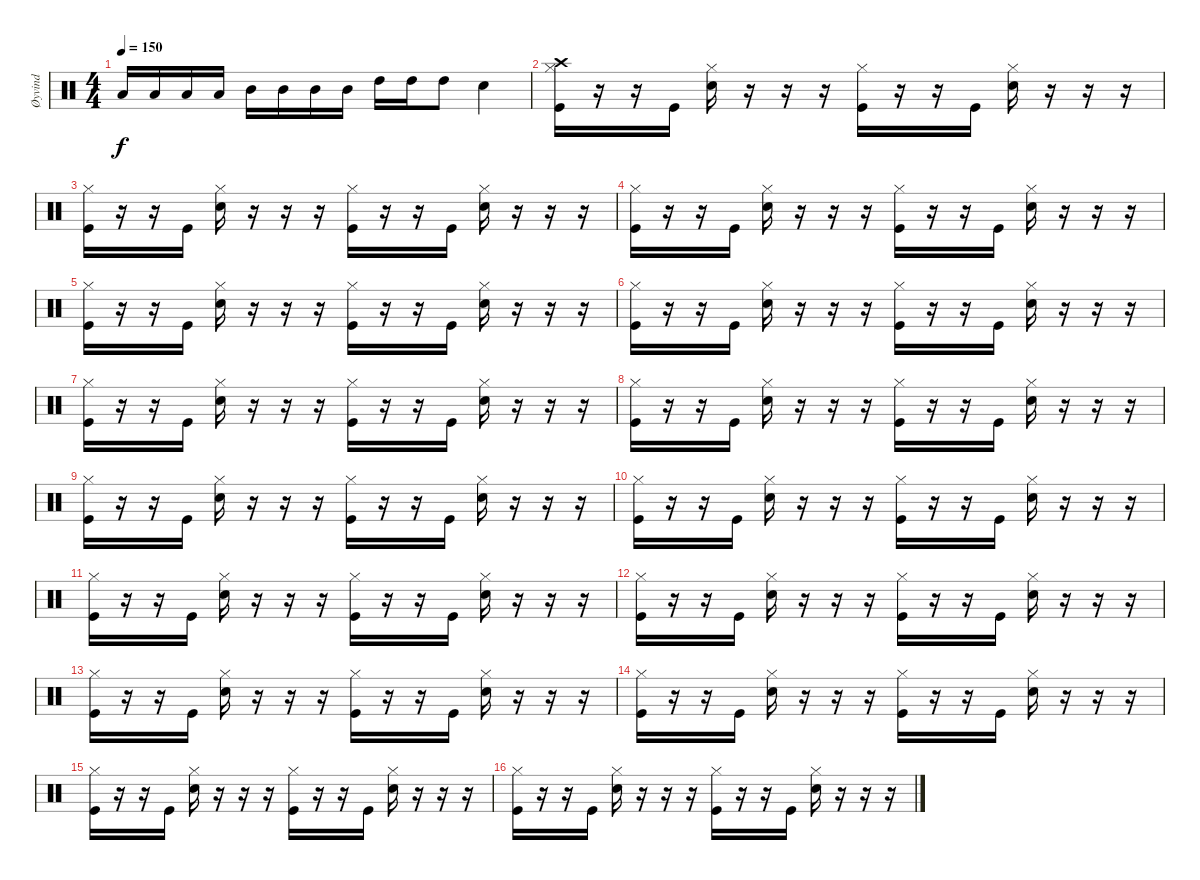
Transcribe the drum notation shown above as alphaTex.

\track ("Øyvind" "Øyvind") {instrument percussion}
\staff {score}
\articulation defaults
\ts (4 4)
\tempo 150
\clef neutral
\ks c "Low Tom (hit)".16{dy f} "Low Tom (hit)".16 "Low Tom (hit)".16 "Low Tom (hit)".16 "Mid Tom (hit)".16 "Mid Tom (hit)".16 "Mid Tom (hit)".16 "Mid Tom (hit)".16 "High Tom (hit)".16 "High Tom (hit)".16 "High Tom (hit)".8 "Snare (hit) 2".4
|
("Crash high (hit)" "Kick (hit)" "Hi-Hat (closed)").16 r.16 r.16 "Kick (hit)".16 ("Electric Snare (hit)" "Hi-Hat (closed)").16 r.16 r.16 r.16 ("Kick (hit)" "Hi-Hat (closed)").16 r.16 r.16 "Kick (hit)".16 ("Electric Snare (hit)" "Hi-Hat (closed)").16 r.16 r.16 r.16 |
("Kick (hit)" "Hi-Hat (closed)").16 r.16 r.16 "Kick (hit)".16 ("Electric Snare (hit)" "Hi-Hat (closed)").16 r.16 r.16 r.16 ("Kick (hit)" "Hi-Hat (closed)").16 r.16 r.16 "Kick (hit)".16 ("Electric Snare (hit)" "Hi-Hat (closed)").16 r.16 r.16 r.16 |
("Kick (hit)" "Hi-Hat (closed)").16 r.16 r.16 "Kick (hit)".16 ("Electric Snare (hit)" "Hi-Hat (closed)").16 r.16 r.16 r.16 ("Kick (hit)" "Hi-Hat (closed)").16 r.16 r.16 "Kick (hit)".16 ("Electric Snare (hit)" "Hi-Hat (closed)").16 r.16 r.16 r.16 |
("Kick (hit)" "Hi-Hat (closed)").16 r.16 r.16 "Kick (hit)".16 ("Electric Snare (hit)" "Hi-Hat (closed)").16 r.16 r.16 r.16 ("Kick (hit)" "Hi-Hat (closed)").16 r.16 r.16 "Kick (hit)".16 ("Electric Snare (hit)" "Hi-Hat (closed)").16 r.16 r.16 r.16 |
("Kick (hit)" "Hi-Hat (closed)").16 r.16 r.16 "Kick (hit)".16 ("Electric Snare (hit)" "Hi-Hat (closed)").16 r.16 r.16 r.16 ("Kick (hit)" "Hi-Hat (closed)").16 r.16 r.16 "Kick (hit)".16 ("Electric Snare (hit)" "Hi-Hat (closed)").16 r.16 r.16 r.16 |
("Kick (hit)" "Hi-Hat (closed)").16 r.16 r.16 "Kick (hit)".16 ("Electric Snare (hit)" "Hi-Hat (closed)").16 r.16 r.16 r.16 ("Kick (hit)" "Hi-Hat (closed)").16 r.16 r.16 "Kick (hit)".16 ("Electric Snare (hit)" "Hi-Hat (closed)").16 r.16 r.16 r.16 |
("Kick (hit)" "Hi-Hat (closed)").16 r.16 r.16 "Kick (hit)".16 ("Electric Snare (hit)" "Hi-Hat (closed)").16 r.16 r.16 r.16 ("Kick (hit)" "Hi-Hat (closed)").16 r.16 r.16 "Kick (hit)".16 ("Electric Snare (hit)" "Hi-Hat (closed)").16 r.16 r.16 r.16 |
("Kick (hit)" "Hi-Hat (closed)").16 r.16 r.16 "Kick (hit)".16 ("Electric Snare (hit)" "Hi-Hat (closed)").16 r.16 r.16 r.16 ("Kick (hit)" "Hi-Hat (closed)").16 r.16 r.16 "Kick (hit)".16 ("Electric Snare (hit)" "Hi-Hat (closed)").16 r.16 r.16 r.16 |
("Kick (hit)" "Hi-Hat (closed)").16 r.16 r.16 "Kick (hit)".16 ("Electric Snare (hit)" "Hi-Hat (closed)").16 r.16 r.16 r.16 ("Kick (hit)" "Hi-Hat (closed)").16 r.16 r.16 "Kick (hit)".16 ("Electric Snare (hit)" "Hi-Hat (closed)").16 r.16 r.16 r.16 |
("Kick (hit)" "Hi-Hat (closed)").16 r.16 r.16 "Kick (hit)".16 ("Electric Snare (hit)" "Hi-Hat (closed)").16 r.16 r.16 r.16 ("Kick (hit)" "Hi-Hat (closed)").16 r.16 r.16 "Kick (hit)".16 ("Electric Snare (hit)" "Hi-Hat (closed)").16 r.16 r.16 r.16 |
("Kick (hit)" "Hi-Hat (closed)").16 r.16 r.16 "Kick (hit)".16 ("Electric Snare (hit)" "Hi-Hat (closed)").16 r.16 r.16 r.16 ("Kick (hit)" "Hi-Hat (closed)").16 r.16 r.16 "Kick (hit)".16 ("Electric Snare (hit)" "Hi-Hat (closed)").16 r.16 r.16 r.16 |
("Kick (hit)" "Hi-Hat (closed)").16 r.16 r.16 "Kick (hit)".16 ("Electric Snare (hit)" "Hi-Hat (closed)").16 r.16 r.16 r.16 ("Kick (hit)" "Hi-Hat (closed)").16 r.16 r.16 "Kick (hit)".16 ("Electric Snare (hit)" "Hi-Hat (closed)").16 r.16 r.16 r.16 |
("Kick (hit)" "Hi-Hat (closed)").16 r.16 r.16 "Kick (hit)".16 ("Electric Snare (hit)" "Hi-Hat (closed)").16 r.16 r.16 r.16 ("Kick (hit)" "Hi-Hat (closed)").16 r.16 r.16 "Kick (hit)".16 ("Electric Snare (hit)" "Hi-Hat (closed)").16 r.16 r.16 r.16 |
("Kick (hit)" "Hi-Hat (closed)").16 r.16 r.16 "Kick (hit)".16 ("Electric Snare (hit)" "Hi-Hat (closed)").16 r.16 r.16 r.16 ("Kick (hit)" "Hi-Hat (closed)").16 r.16 r.16 "Kick (hit)".16 ("Electric Snare (hit)" "Hi-Hat (closed)").16 r.16 r.16 r.16 |
("Kick (hit)" "Hi-Hat (closed)").16 r.16 r.16 "Kick (hit)".16 ("Electric Snare (hit)" "Hi-Hat (closed)").16 r.16 r.16 r.16 ("Kick (hit)" "Hi-Hat (closed)").16 r.16 r.16 "Kick (hit)".16 ("Electric Snare (hit)" "Hi-Hat (closed)").16 r.16 r.16 r.16
